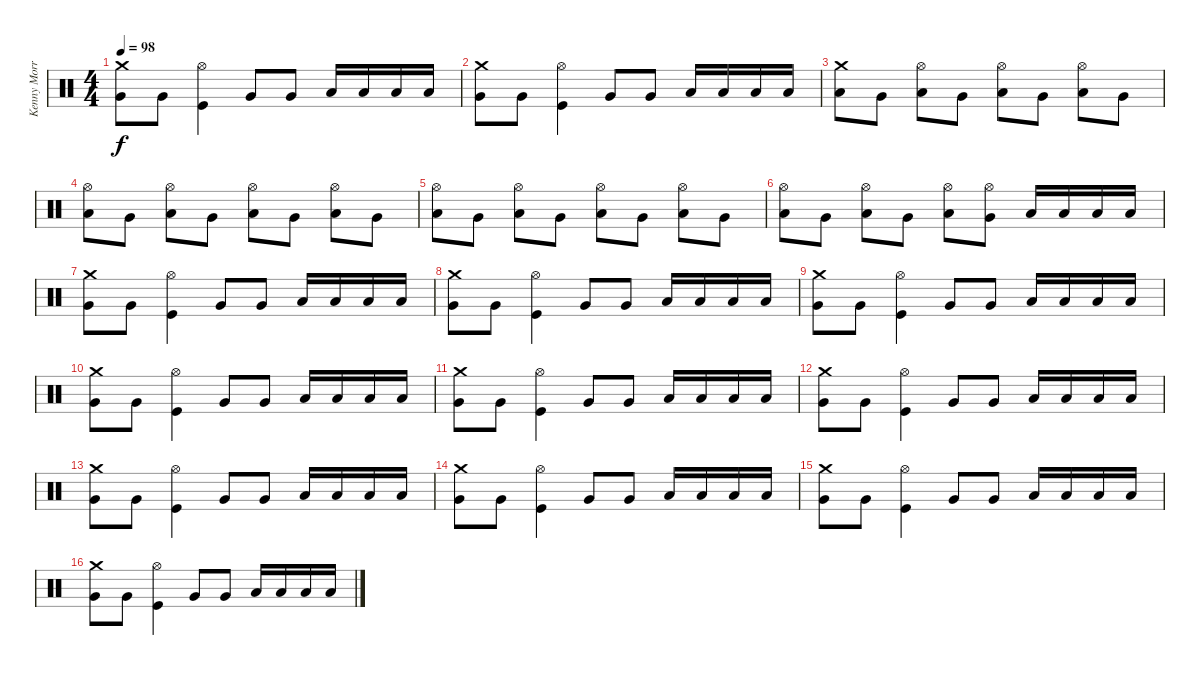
\track ("Kenny Morris" "Kenny Morr") {instrument percussion}
\staff {score}
\articulation defaults
\ts (4 4)
\tempo 98
\clef neutral
\ks c
("Crash medium (hit)" "Very Low Tom (hit)").8{dy f} "Very Low Tom (hit)".8 ("Hi-Hat (open)" "Kick (hit)").4 "Very Low Tom (hit)".8 "Very Low Tom (hit)".8 "Low Tom (hit)".16 "Low Tom (hit)".16 "Low Tom (hit)".16 "Low Tom (hit)".16 |
("Crash medium (hit)" "Very Low Tom (hit)").8 "Very Low Tom (hit)".8 ("Hi-Hat (open)" "Kick (hit)").4 "Very Low Tom (hit)".8 "Very Low Tom (hit)".8 "Low Tom (hit)".16 "Low Tom (hit)".16 "Low Tom (hit)".16 "Low Tom (hit)".16 |
("Crash medium (hit)" "Low Tom (hit)").8 "Very Low Tom (hit)".8 ("Hi-Hat (open)" "Low Tom (hit)").8 "Very Low Tom (hit)".8 ("Hi-Hat (open)" "Low Tom (hit)").8 "Very Low Tom (hit)".8 ("Hi-Hat (open)" "Low Tom (hit)").8 "Very Low Tom (hit)".8 |
("Hi-Hat (open)" "Low Tom (hit)").8 "Very Low Tom (hit)".8 ("Hi-Hat (open)" "Low Tom (hit)").8 "Very Low Tom (hit)".8 ("Hi-Hat (open)" "Low Tom (hit)").8 "Very Low Tom (hit)".8 ("Hi-Hat (open)" "Low Tom (hit)").8 "Very Low Tom (hit)".8 |
("Hi-Hat (open)" "Low Tom (hit)").8 "Very Low Tom (hit)".8 ("Hi-Hat (open)" "Low Tom (hit)").8 "Very Low Tom (hit)".8 ("Hi-Hat (open)" "Low Tom (hit)").8 "Very Low Tom (hit)".8 ("Hi-Hat (open)" "Low Tom (hit)").8 "Very Low Tom (hit)".8 |
("Hi-Hat (open)" "Low Tom (hit)").8 "Very Low Tom (hit)".8 ("Hi-Hat (open)" "Low Tom (hit)").8 "Very Low Tom (hit)".8 ("Hi-Hat (open)" "Low Tom (hit)").8 ("Hi-Hat (open)" "Very Low Tom (hit)").8 "Low Tom (hit)".16 "Low Tom (hit)".16 "Low Tom (hit)".16 "Low Tom (hit)".16 |
("Crash medium (hit)" "Very Low Tom (hit)").8 "Very Low Tom (hit)".8 ("Hi-Hat (open)" "Kick (hit)").4 "Very Low Tom (hit)".8 "Very Low Tom (hit)".8 "Low Tom (hit)".16 "Low Tom (hit)".16 "Low Tom (hit)".16 "Low Tom (hit)".16 |
("Crash medium (hit)" "Very Low Tom (hit)").8 "Very Low Tom (hit)".8 ("Hi-Hat (open)" "Kick (hit)").4 "Very Low Tom (hit)".8 "Very Low Tom (hit)".8 "Low Tom (hit)".16 "Low Tom (hit)".16 "Low Tom (hit)".16 "Low Tom (hit)".16 |
("Crash medium (hit)" "Very Low Tom (hit)").8 "Very Low Tom (hit)".8 ("Hi-Hat (open)" "Kick (hit)").4 "Very Low Tom (hit)".8 "Very Low Tom (hit)".8 "Low Tom (hit)".16 "Low Tom (hit)".16 "Low Tom (hit)".16 "Low Tom (hit)".16 |
("Crash medium (hit)" "Very Low Tom (hit)").8 "Very Low Tom (hit)".8 ("Hi-Hat (open)" "Kick (hit)").4 "Very Low Tom (hit)".8 "Very Low Tom (hit)".8 "Low Tom (hit)".16 "Low Tom (hit)".16 "Low Tom (hit)".16 "Low Tom (hit)".16 |
("Crash medium (hit)" "Very Low Tom (hit)").8 "Very Low Tom (hit)".8 ("Hi-Hat (open)" "Kick (hit)").4 "Very Low Tom (hit)".8 "Very Low Tom (hit)".8 "Low Tom (hit)".16 "Low Tom (hit)".16 "Low Tom (hit)".16 "Low Tom (hit)".16 |
("Crash medium (hit)" "Very Low Tom (hit)").8 "Very Low Tom (hit)".8 ("Hi-Hat (open)" "Kick (hit)").4 "Very Low Tom (hit)".8 "Very Low Tom (hit)".8 "Low Tom (hit)".16 "Low Tom (hit)".16 "Low Tom (hit)".16 "Low Tom (hit)".16 |
("Crash medium (hit)" "Very Low Tom (hit)").8 "Very Low Tom (hit)".8 ("Hi-Hat (open)" "Kick (hit)").4 "Very Low Tom (hit)".8 "Very Low Tom (hit)".8 "Low Tom (hit)".16 "Low Tom (hit)".16 "Low Tom (hit)".16 "Low Tom (hit)".16 |
("Crash medium (hit)" "Very Low Tom (hit)").8 "Very Low Tom (hit)".8 ("Hi-Hat (open)" "Kick (hit)").4 "Very Low Tom (hit)".8 "Very Low Tom (hit)".8 "Low Tom (hit)".16 "Low Tom (hit)".16 "Low Tom (hit)".16 "Low Tom (hit)".16 |
("Crash medium (hit)" "Very Low Tom (hit)").8 "Very Low Tom (hit)".8 ("Hi-Hat (open)" "Kick (hit)").4 "Very Low Tom (hit)".8 "Very Low Tom (hit)".8 "Low Tom (hit)".16 "Low Tom (hit)".16 "Low Tom (hit)".16 "Low Tom (hit)".16 |
("Crash medium (hit)" "Very Low Tom (hit)").8 "Very Low Tom (hit)".8 ("Hi-Hat (open)" "Kick (hit)").4 "Very Low Tom (hit)".8 "Very Low Tom (hit)".8 "Low Tom (hit)".16 "Low Tom (hit)".16 "Low Tom (hit)".16 "Low Tom (hit)".16
